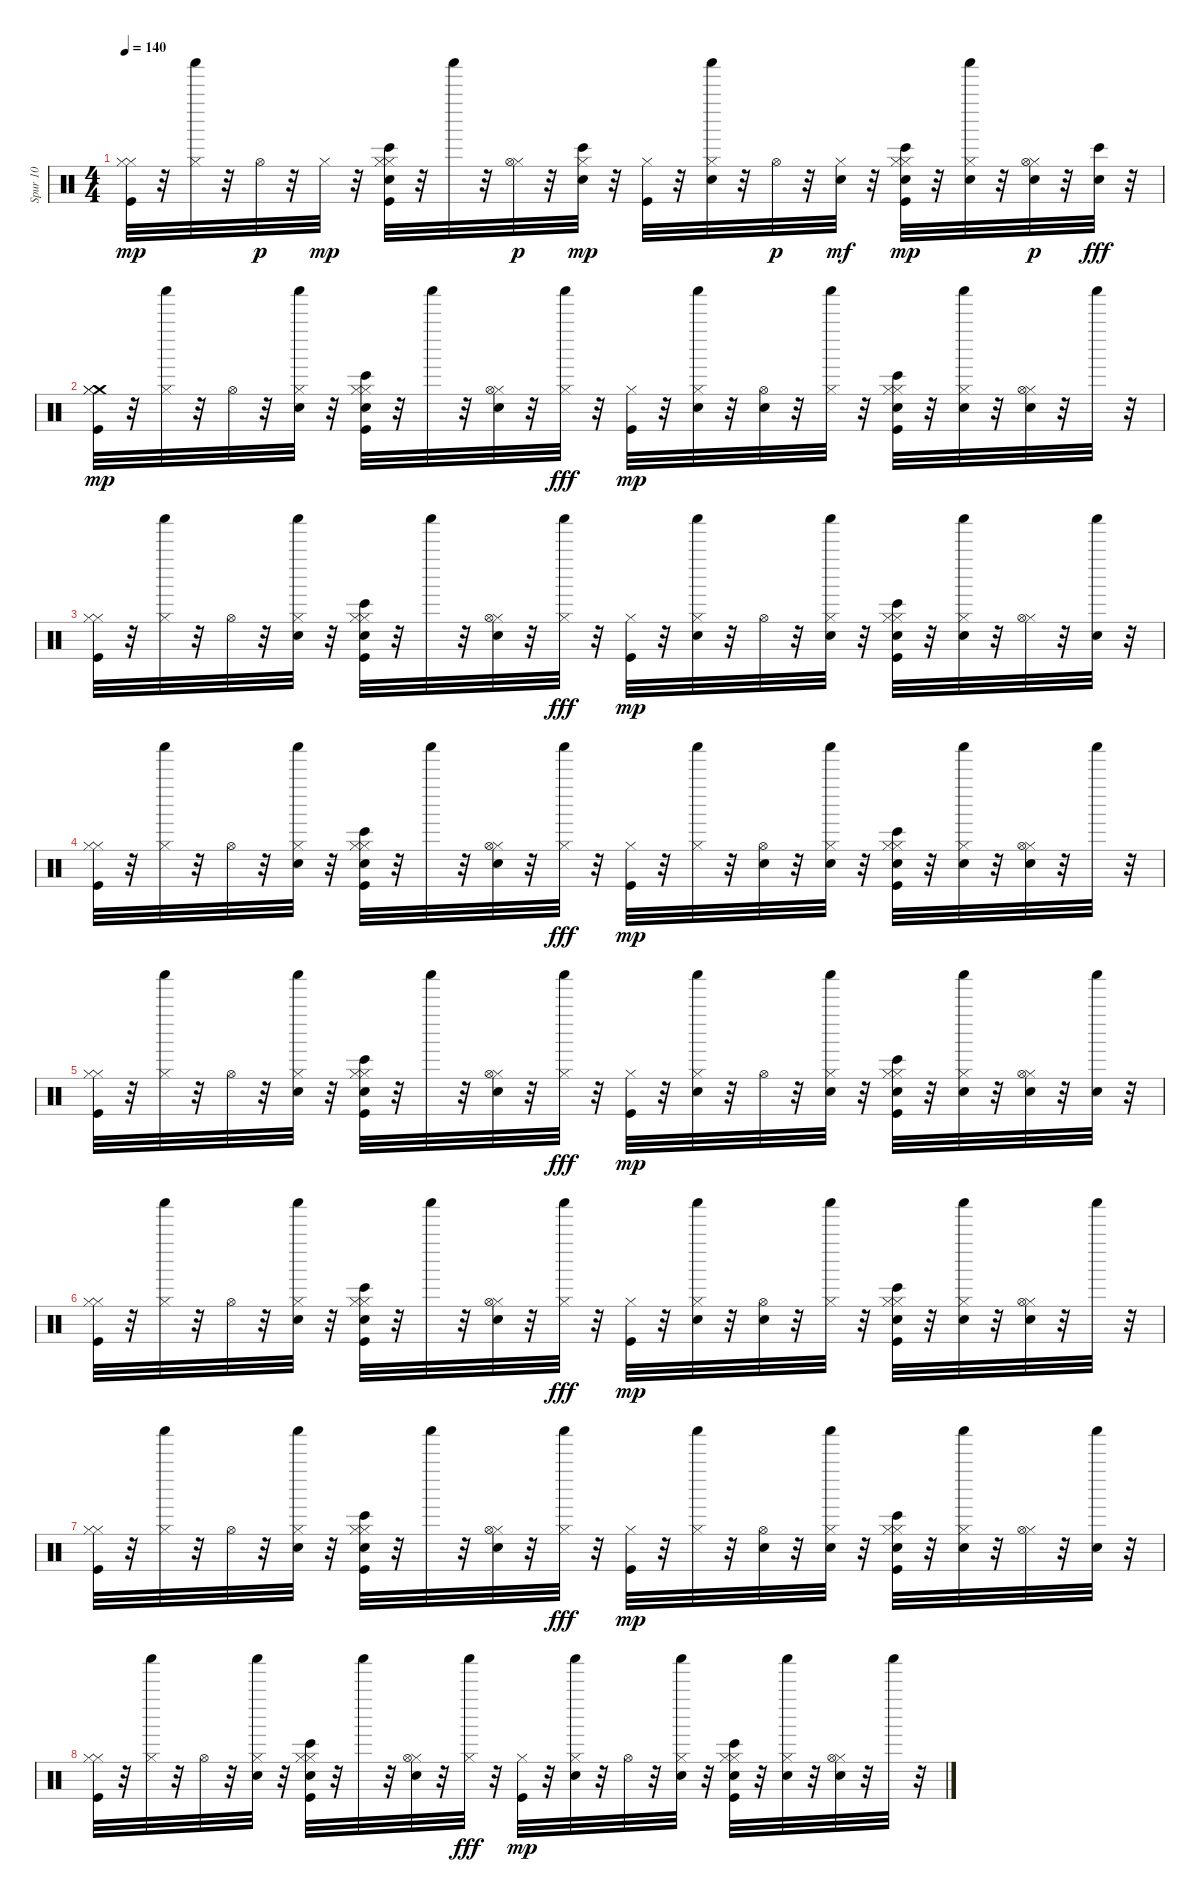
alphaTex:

\track ("Spur 10" "Spur 10") {instrument percussion}
\staff {score}
\articulation defaults
\ts (4 4)
\tempo 140
\clef neutral
\ks c
("Hi-Hat (closed)" "Kick (hit)" "Hi-Hat (closed)").32{dy mp} r.32 ("Hi-Hat (closed)" "Shaker (hit)").32 r.32 "Hi-Hat (open)".32{dy p} r.32 "Hi-Hat (closed)".32{dy mp} r.32 ("Hi-Hat (closed)" "Kick (hit)" "Bongo High (hit)" "Electric Snare (hit)" "Hi-Hat (closed)").32 r.32 "Shaker (hit)".32 r.32 ("Hi-Hat (closed)" "Hi-Hat (open)").32{dy p} r.32 ("Hi-Hat (closed)" "Bongo High (hit)" "Electric Snare (hit)").32{dy mp} r.32 ("Kick (hit)" "Hi-Hat (closed)").32 r.32 ("Snare (hit)" "Hi-Hat (closed)" "Shaker (hit)").32 r.32 "Hi-Hat (open)".32{dy p} r.32 ("Hi-Hat (closed)" "Snare (hit) 2").32{dy mf} r.32 ("Hi-Hat (closed)" "Kick (hit)" "Bongo High (hit)" "Electric Snare (hit)" "Hi-Hat (closed)").32{dy mp} r.32 ("Hi-Hat (closed)" "Shaker (hit)" "Snare (hit) 2").32 r.32 ("Hi-Hat (closed)" "Snare (hit) 2" "Hi-Hat (open)").32{dy p} r.32 ("Bongo High (hit)" "Electric Snare (hit)").32{dy fff} r.32 |
("Crash medium (hit)" "Hi-Hat (closed)" "Kick (hit)" "Hi-Hat (closed)").32{dy mp} r.32 ("Hi-Hat (closed)" "Shaker (hit)").32 r.32 "Hi-Hat (open)".32 r.32 ("Shaker (hit)" "Snare (hit) 2" "Hi-Hat (closed)").32 r.32 ("Hi-Hat (closed)" "Kick (hit)" "Bongo High (hit)" "Electric Snare (hit)" "Hi-Hat (closed)").32 r.32 "Shaker (hit)".32 r.32 ("Snare (hit) 2" "Hi-Hat (closed)" "Hi-Hat (open)").32 r.32 ("Shaker (hit)" "Hi-Hat (closed)").32{dy fff} r.32 ("Kick (hit)" "Hi-Hat (closed)").32{dy mp} r.32 ("Snare (hit) 2" "Hi-Hat (closed)" "Shaker (hit)").32 r.32 ("Snare (hit) 2" "Hi-Hat (open)").32 r.32 ("Shaker (hit)" "Hi-Hat (closed)").32 r.32 ("Hi-Hat (closed)" "Kick (hit)" "Bongo High (hit)" "Electric Snare (hit)" "Hi-Hat (closed)").32 r.32 ("Snare (hit) 2" "Hi-Hat (closed)" "Shaker (hit)").32 r.32 ("Snare (hit) 2" "Hi-Hat (closed)" "Hi-Hat (open)").32 r.32 "Shaker (hit)".32 r.32 |
("Hi-Hat (closed)" "Kick (hit)" "Hi-Hat (closed)").32 r.32 ("Hi-Hat (closed)" "Shaker (hit)").32 r.32 "Hi-Hat (open)".32 r.32 ("Shaker (hit)" "Snare (hit) 2" "Hi-Hat (closed)").32 r.32 ("Hi-Hat (closed)" "Kick (hit)" "Bongo High (hit)" "Electric Snare (hit)" "Hi-Hat (closed)").32 r.32 "Shaker (hit)".32 r.32 ("Snare (hit) 2" "Hi-Hat (closed)" "Hi-Hat (open)").32 r.32 ("Shaker (hit)" "Hi-Hat (closed)").32{dy fff} r.32 ("Kick (hit)" "Hi-Hat (closed)").32{dy mp} r.32 ("Snare (hit) 2" "Hi-Hat (closed)" "Shaker (hit)").32 r.32 "Hi-Hat (open)".32 r.32 ("Snare (hit) 2" "Shaker (hit)" "Hi-Hat (closed)").32 r.32 ("Hi-Hat (closed)" "Kick (hit)" "Bongo High (hit)" "Electric Snare (hit)" "Hi-Hat (closed)").32 r.32 ("Snare (hit) 2" "Hi-Hat (closed)" "Shaker (hit)").32 r.32 ("Hi-Hat (closed)" "Hi-Hat (open)").32 r.32 ("Snare (hit) 2" "Shaker (hit)").32 r.32 |
("Hi-Hat (closed)" "Kick (hit)" "Hi-Hat (closed)").32 r.32 ("Hi-Hat (closed)" "Shaker (hit)").32 r.32 "Hi-Hat (open)".32 r.32 ("Shaker (hit)" "Snare (hit) 2" "Hi-Hat (closed)").32 r.32 ("Hi-Hat (closed)" "Kick (hit)" "Bongo High (hit)" "Electric Snare (hit)" "Hi-Hat (closed)").32 r.32 "Shaker (hit)".32 r.32 ("Snare (hit) 2" "Hi-Hat (closed)" "Hi-Hat (open)").32 r.32 ("Shaker (hit)" "Hi-Hat (closed)").32{dy fff} r.32 ("Kick (hit)" "Hi-Hat (closed)").32{dy mp} r.32 ("Hi-Hat (closed)" "Shaker (hit)").32 r.32 ("Snare (hit) 2" "Hi-Hat (open)").32 r.32 ("Snare (hit) 2" "Shaker (hit)" "Hi-Hat (closed)").32 r.32 ("Hi-Hat (closed)" "Kick (hit)" "Bongo High (hit)" "Electric Snare (hit)" "Hi-Hat (closed)").32 r.32 ("Snare (hit) 2" "Hi-Hat (closed)" "Shaker (hit)").32 r.32 ("Snare (hit) 2" "Hi-Hat (closed)" "Hi-Hat (open)").32 r.32 "Shaker (hit)".32 r.32 |
("Hi-Hat (closed)" "Kick (hit)" "Hi-Hat (closed)").32 r.32 ("Hi-Hat (closed)" "Shaker (hit)").32 r.32 "Hi-Hat (open)".32 r.32 ("Shaker (hit)" "Snare (hit) 2" "Hi-Hat (closed)").32 r.32 ("Hi-Hat (closed)" "Kick (hit)" "Bongo High (hit)" "Electric Snare (hit)" "Hi-Hat (closed)").32 r.32 "Shaker (hit)".32 r.32 ("Snare (hit) 2" "Hi-Hat (closed)" "Hi-Hat (open)").32 r.32 ("Shaker (hit)" "Hi-Hat (closed)").32{dy fff} r.32 ("Kick (hit)" "Hi-Hat (closed)").32{dy mp} r.32 ("Snare (hit) 2" "Hi-Hat (closed)" "Shaker (hit)").32 r.32 "Hi-Hat (open)".32 r.32 ("Snare (hit) 2" "Shaker (hit)" "Hi-Hat (closed)").32 r.32 ("Hi-Hat (closed)" "Kick (hit)" "Bongo High (hit)" "Electric Snare (hit)" "Hi-Hat (closed)").32 r.32 ("Snare (hit) 2" "Hi-Hat (closed)" "Shaker (hit)").32 r.32 ("Snare (hit) 2" "Hi-Hat (closed)" "Hi-Hat (open)").32 r.32 ("Snare (hit) 2" "Shaker (hit)").32 r.32 |
("Hi-Hat (closed)" "Kick (hit)" "Hi-Hat (closed)").32 r.32 ("Hi-Hat (closed)" "Shaker (hit)").32 r.32 "Hi-Hat (open)".32 r.32 ("Shaker (hit)" "Snare (hit) 2" "Hi-Hat (closed)").32 r.32 ("Hi-Hat (closed)" "Kick (hit)" "Bongo High (hit)" "Electric Snare (hit)" "Hi-Hat (closed)").32 r.32 "Shaker (hit)".32 r.32 ("Snare (hit) 2" "Hi-Hat (closed)" "Hi-Hat (open)").32 r.32 ("Shaker (hit)" "Hi-Hat (closed)").32{dy fff} r.32 ("Kick (hit)" "Hi-Hat (closed)").32{dy mp} r.32 ("Snare (hit) 2" "Hi-Hat (closed)" "Shaker (hit)").32 r.32 ("Snare (hit) 2" "Hi-Hat (open)").32 r.32 ("Shaker (hit)" "Hi-Hat (closed)").32 r.32 ("Hi-Hat (closed)" "Kick (hit)" "Bongo High (hit)" "Electric Snare (hit)" "Hi-Hat (closed)").32 r.32 ("Snare (hit) 2" "Hi-Hat (closed)" "Shaker (hit)").32 r.32 ("Snare (hit) 2" "Hi-Hat (closed)" "Hi-Hat (open)").32 r.32 "Shaker (hit)".32 r.32 |
("Hi-Hat (closed)" "Kick (hit)" "Hi-Hat (closed)").32 r.32 ("Hi-Hat (closed)" "Shaker (hit)").32 r.32 "Hi-Hat (open)".32 r.32 ("Shaker (hit)" "Snare (hit) 2" "Hi-Hat (closed)").32 r.32 ("Hi-Hat (closed)" "Kick (hit)" "Bongo High (hit)" "Electric Snare (hit)" "Hi-Hat (closed)").32 r.32 "Shaker (hit)".32 r.32 ("Snare (hit) 2" "Hi-Hat (closed)" "Hi-Hat (open)").32 r.32 ("Shaker (hit)" "Hi-Hat (closed)").32{dy fff} r.32 ("Kick (hit)" "Hi-Hat (closed)").32{dy mp} r.32 ("Hi-Hat (closed)" "Shaker (hit)").32 r.32 ("Snare (hit) 2" "Hi-Hat (open)").32 r.32 ("Snare (hit) 2" "Shaker (hit)" "Hi-Hat (closed)").32 r.32 ("Hi-Hat (closed)" "Kick (hit)" "Bongo High (hit)" "Electric Snare (hit)" "Hi-Hat (closed)").32 r.32 ("Snare (hit) 2" "Hi-Hat (closed)" "Shaker (hit)").32 r.32 ("Hi-Hat (closed)" "Hi-Hat (open)").32 r.32 ("Snare (hit) 2" "Shaker (hit)").32 r.32 |
("Hi-Hat (closed)" "Kick (hit)" "Hi-Hat (closed)").32 r.32 ("Hi-Hat (closed)" "Shaker (hit)").32 r.32 "Hi-Hat (open)".32 r.32 ("Shaker (hit)" "Snare (hit) 2" "Hi-Hat (closed)").32 r.32 ("Electric Snare (hit)" "Hi-Hat (closed)" "Kick (hit)" "Bongo High (hit)" "Hi-Hat (closed)").32 r.32 "Shaker (hit)".32 r.32 ("Snare (hit) 2" "Hi-Hat (closed)" "Hi-Hat (open)").32 r.32 ("Shaker (hit)" "Hi-Hat (closed)").32{dy fff} r.32 ("Kick (hit)" "Hi-Hat (closed)").32{dy mp} r.32 ("Snare (hit) 2" "Hi-Hat (closed)" "Shaker (hit)").32 r.32 "Hi-Hat (open)".32 r.32 ("Snare (hit) 2" "Shaker (hit)" "Hi-Hat (closed)").32 r.32 ("Hi-Hat (closed)" "Kick (hit)" "Bongo High (hit)" "Electric Snare (hit)" "Hi-Hat (closed)").32 r.32 ("Snare (hit) 2" "Hi-Hat (closed)" "Shaker (hit)").32 r.32 ("Snare (hit) 2" "Hi-Hat (closed)" "Hi-Hat (open)").32 r.32 "Shaker (hit)".32 r.32
